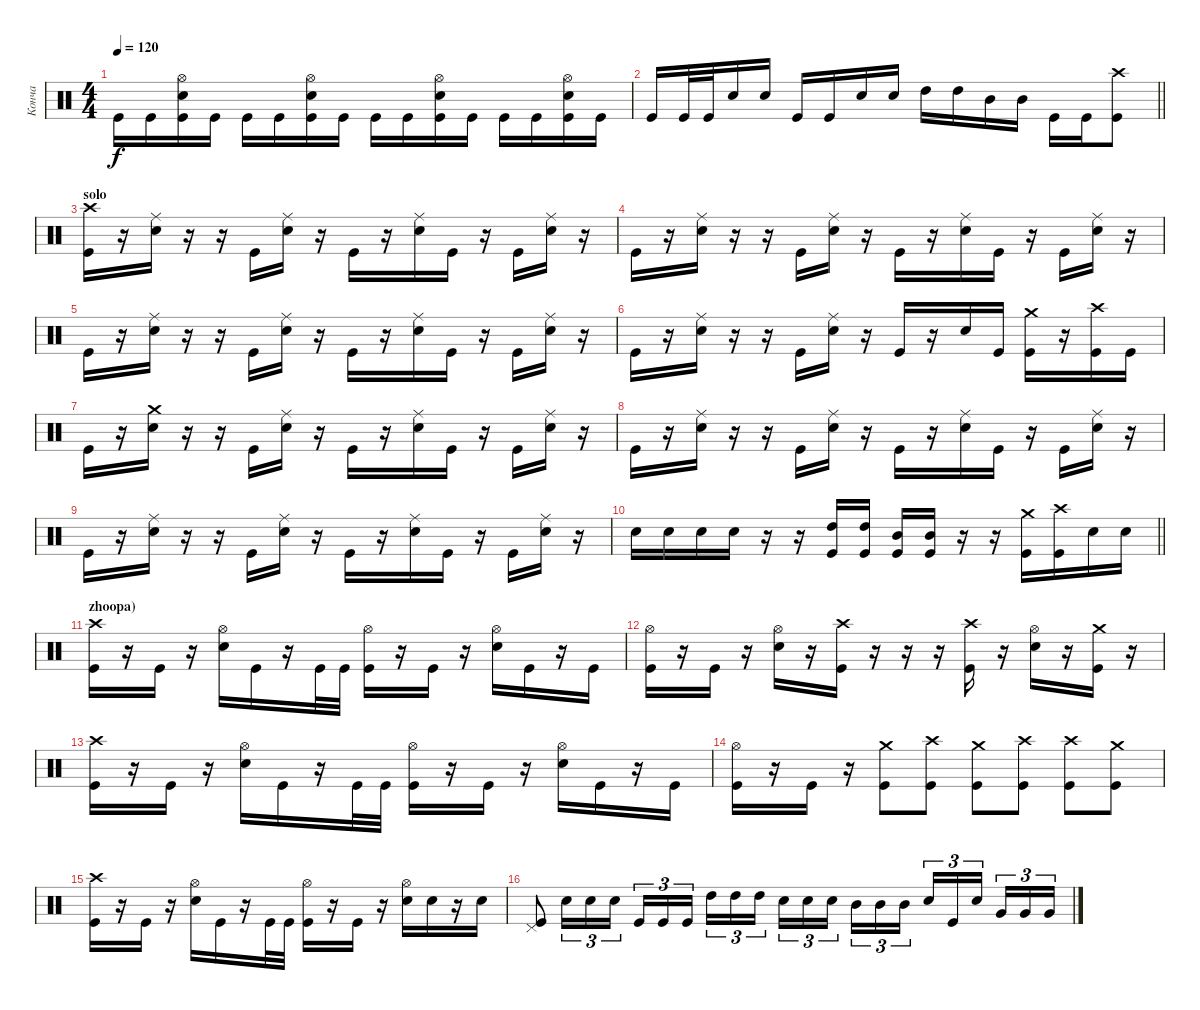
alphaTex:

\track ("Конча" "Конча") {instrument percussion}
\staff {score}
\articulation defaults
\ts (4 4)
\tempo 120
\clef neutral
\ks c "Kick (hit)".16{dy f} "Kick (hit)".16
("Kick (hit)" "Electric Snare (hit)" "Hi-Hat (open)").16 "Kick (hit)".16 "Kick (hit)".16 "Kick (hit)".16 ("Kick (hit)" "Electric Snare (hit)" "Hi-Hat (open)").16 "Kick (hit)".16 "Kick (hit)".16 "Kick (hit)".16 ("Kick (hit)" "Electric Snare (hit)" "Hi-Hat (open)").16 "Kick (hit)".16 "Kick (hit)".16 "Kick (hit)".16 ("Kick (hit)" "Electric Snare (hit)" "Hi-Hat (open)").16 "Kick (hit)".16 |
\barLineRight lightlight "Kick (hit)".16 "Kick (hit)".32 "Kick (hit)".32 "Electric Snare (hit)".16 "Electric Snare (hit)".16 "Kick (hit)".16 "Kick (hit)".16 "Electric Snare (hit)".16 "Electric Snare (hit)".16 "High Tom (hit)".16 "High Tom (hit)".16 "Mid Tom (hit)".16 "Mid Tom (hit)".16 "Kick (hit)".16 "Kick (hit)".16
("Crash high (hit)" "Kick (hit)").8 |
\section ("" "solo")
("Kick (hit)" "Crash high (hit)").16 r.16 ("Ride (middle)" "Electric Snare (hit)").16 r.16 r.16 "Kick (hit)".16 ("Ride (middle)" "Electric Snare (hit)").16 r.16 "Kick (hit)".16 r.16 ("Ride (middle)" "Electric Snare (hit)").16 "Kick (hit)".16 r.16 "Kick (hit)".16 ("Ride (middle)" "Electric Snare (hit)").16 r.16 |
"Kick (hit)".16 r.16 ("Ride (middle)" "Electric Snare (hit)").16 r.16 r.16 "Kick (hit)".16 ("Ride (middle)" "Electric Snare (hit)").16 r.16 "Kick (hit)".16 r.16 ("Ride (middle)" "Electric Snare (hit)").16 "Kick (hit)".16 r.16 "Kick (hit)".16 ("Ride (middle)" "Electric Snare (hit)").16 r.16 |
"Kick (hit)".16 r.16 ("Ride (middle)" "Electric Snare (hit)").16 r.16 r.16 "Kick (hit)".16 ("Ride (middle)" "Electric Snare (hit)").16 r.16 "Kick (hit)".16 r.16 ("Ride (middle)" "Electric Snare (hit)").16 "Kick (hit)".16 r.16 "Kick (hit)".16 ("Ride (middle)" "Electric Snare (hit)").16 r.16 |
"Kick (hit)".16 r.16 ("Ride (middle)" "Electric Snare (hit)").16 r.16 r.16 "Kick (hit)".16 ("Ride (middle)" "Electric Snare (hit)").16 r.16 "Kick (hit)".16 r.16 "Electric Snare (hit)".16 "Kick (hit)".16 ("Kick (hit)" "Crash medium (hit)").16 r.16 ("Kick (hit)" "Crash high (hit)").16 "Kick (hit)".16 |
"Kick (hit)".16 r.16 ("Crash medium (hit)" "Electric Snare (hit)").16 r.16 r.16 "Kick (hit)".16 ("Ride (middle)" "Electric Snare (hit)").16 r.16 "Kick (hit)".16 r.16 ("Ride (middle)" "Electric Snare (hit)").16 "Kick (hit)".16 r.16 "Kick (hit)".16 ("Ride (middle)" "Electric Snare (hit)").16 r.16 |
"Kick (hit)".16 r.16 ("Ride (middle)" "Electric Snare (hit)").16 r.16 r.16 "Kick (hit)".16 ("Ride (middle)" "Electric Snare (hit)").16 r.16 "Kick (hit)".16 r.16 ("Ride (middle)" "Electric Snare (hit)").16 "Kick (hit)".16 r.16 "Kick (hit)".16 ("Ride (middle)" "Electric Snare (hit)").16 r.16 |
"Kick (hit)".16 r.16 ("Ride (middle)" "Electric Snare (hit)").16 r.16 r.16 "Kick (hit)".16 ("Ride (middle)" "Electric Snare (hit)").16 r.16 "Kick (hit)".16 r.16 ("Ride (middle)" "Electric Snare (hit)").16 "Kick (hit)".16 r.16 "Kick (hit)".16 ("Ride (middle)" "Electric Snare (hit)").16 r.16 |
\barLineRight lightlight "Electric Snare (hit)".16 "Electric Snare (hit)".16 "Electric Snare (hit)".16 "Electric Snare (hit)".16
r.16 r.16 ("High Tom (hit)" "Kick (hit)").16 ("High Tom (hit)" "Kick (hit)").16 ("Mid Tom (hit)" "Kick (hit)").16 ("Mid Tom (hit)" "Kick (hit)").16 r.16 r.16 ("Crash medium (hit)" "Kick (hit)").16 ("Crash high (hit)" "Kick (hit)").16 "Electric Snare (hit)".16 "Electric Snare (hit)".16 |
\section ("" "zhoopa)")
("Kick (hit)" "Crash high (hit)").16 r.16 "Kick (hit)".16 r.16 ("Electric Snare (hit)" "Hi-Hat (open)").16 "Kick (hit)".16 r.16 "Kick (hit)".32 "Kick (hit)".32 ("Kick (hit)" "Hi-Hat (open)").16 r.16 "Kick (hit)".16 r.16 ("Electric Snare (hit)" "Hi-Hat (open)").16 "Kick (hit)".16 r.16 "Kick (hit)".16 |
("Kick (hit)" "Hi-Hat (open)").16 r.16 "Kick (hit)".16 r.16 ("Electric Snare (hit)" "Hi-Hat (open)").16 r.16 ("Crash high (hit)" "Kick (hit)").16 r.16 r.16 r.16 ("Crash high (hit)" "Kick (hit)").16 r.16 ("Electric Snare (hit)" "Hi-Hat (open)").16 r.16 ("Crash medium (hit)" "Kick (hit)").16 r.16 |
("Kick (hit)" "Crash high (hit)").16 r.16 "Kick (hit)".16 r.16 ("Electric Snare (hit)" "Hi-Hat (open)").16 "Kick (hit)".16 r.16 "Kick (hit)".32 "Kick (hit)".32 ("Kick (hit)" "Hi-Hat (open)").16 r.16 "Kick (hit)".16 r.16 ("Electric Snare (hit)" "Hi-Hat (open)").16 "Kick (hit)".16 r.16 "Kick (hit)".16 |
("Kick (hit)" "Hi-Hat (open)").16 r.16 "Kick (hit)".16 r.16 ("Crash medium (hit)" "Kick (hit)").8 ("Crash high (hit)" "Kick (hit)").8 ("Crash medium (hit)" "Kick (hit)").8 ("Crash high (hit)" "Kick (hit)").8 ("Crash high (hit)" "Kick (hit)").8 ("Crash medium (hit)" "Kick (hit)").8 |
("Kick (hit)" "Crash high (hit)").16 r.16 "Kick (hit)".16 r.16 ("Electric Snare (hit)" "Hi-Hat (open)").16 "Kick (hit)".16 r.16 "Kick (hit)".32 "Kick (hit)".32 ("Kick (hit)" "Hi-Hat (open)").16 r.16 "Kick (hit)".16 r.16 ("Electric Snare (hit)" "Hi-Hat (open)").16 "Electric Snare (hit)".16 r.16 "Electric Snare (hit)".16 |
("Pedal Hi-Hat (hit)" "Kick (hit)").8 "Electric Snare (hit)".16{tu (3 2)} "Electric Snare (hit)".16{tu (3 2)} "Electric Snare (hit)".16{tu (3 2)} "Kick (hit)".16{tu (3 2)} "Kick (hit)".16{tu (3 2)} "Kick (hit)".16{tu (3 2) beam splitsecondary} "High Tom (hit)".16{tu (3 2)} "High Tom (hit)".16{tu (3 2)} "High Tom (hit)".16{tu (3 2)} "Electric Snare (hit)".16{tu (3 2)} "Electric Snare (hit)".16{tu (3 2)} "Electric Snare (hit)".16{tu (3 2) beam splitsecondary} "Mid Tom (hit)".16{tu (3 2)} "Mid Tom (hit)".16{tu (3 2)} "Mid Tom (hit)".16{tu (3 2)} "Electric Snare (hit)".16{tu (3 2)} "Kick (hit)".16{tu (3 2)} "Electric Snare (hit)".16{tu (3 2) beam splitsecondary} "Very Low Tom (hit)".16{tu (3 2)} "Very Low Tom (hit)".16{tu (3 2)} "Very Low Tom (hit)".16{tu (3 2)}
